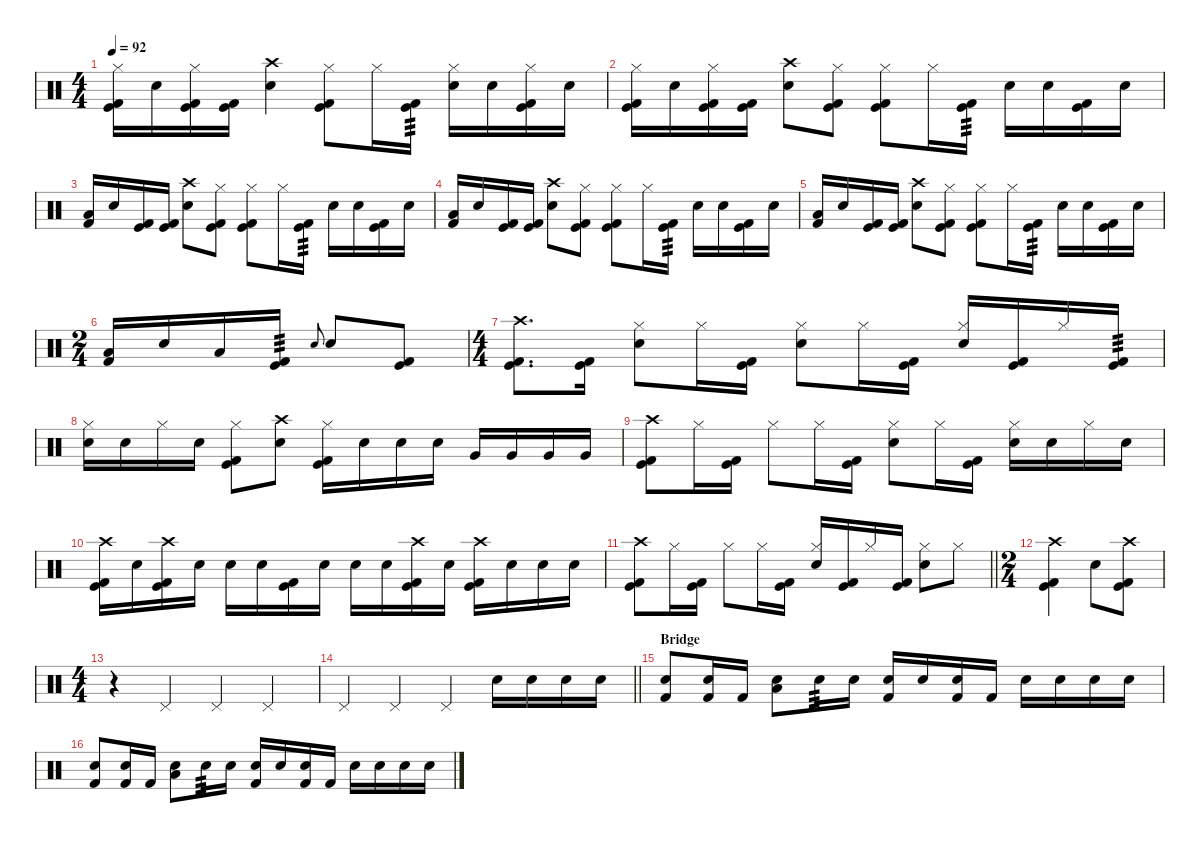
\defaultSystemsLayout 4
\hideDynamics
\bracketExtendMode nobrackets
\singleTrackTrackNamePolicy hidden
\multiTrackTrackNamePolicy hidden
\otherSystemsTrackNameOrientation horizontal
\track ("Lars" "drm.") {instrument percussion}
\staff {score}
\articulation defaults
\ts (4 4)
\tempo 92
\clef neutral
\ks c
("Hi-Hat (closed)" "Kick (hit)" "Kick (hit) 2").16{dy f beam Down} "Snare (hit) 2".16{beam Down} ("Hi-Hat (closed)" "Kick (hit)" "Kick (hit) 2").16{beam Down} ("Kick (hit)" "Kick (hit) 2").16{beam Down} ("Crash high (hit)" "Snare (hit) 2").4{beam Down} ("Hi-Hat (closed)" "Kick (hit)" "Kick (hit) 2").8{beam Down} "Hi-Hat (closed)".16{beam Down} ("Kick (hit)" "Kick (hit) 2").16{tp 3 beam Down} ("Hi-Hat (closed)" "Snare (hit) 2").16{beam Down} "Snare (hit) 2".16{beam Down} ("Hi-Hat (closed)" "Kick (hit)" "Kick (hit) 2").16{beam Down} "Snare (hit) 2".16{beam Down} |
("Hi-Hat (closed)" "Kick (hit)" "Kick (hit) 2").16{beam Down} "Snare (hit) 2".16{beam Down} ("Hi-Hat (closed)" "Kick (hit)" "Kick (hit) 2").16{beam Down} ("Kick (hit)" "Kick (hit) 2").16{beam Down} ("Crash high (hit)" "Snare (hit) 2").8{beam Down} ("Hi-Hat (closed)" "Kick (hit)" "Kick (hit) 2").8{beam Down} ("Hi-Hat (closed)" "Kick (hit)" "Kick (hit) 2").8{beam Down} "Hi-Hat (closed)".16{beam Down} ("Kick (hit)" "Kick (hit) 2").16{tp 3 beam Down} "Snare (hit) 2".16{beam Down} "Snare (hit) 2".16{beam Down} ("Kick (hit)" "Kick (hit) 2").16{beam Down} "Snare (hit) 2".16{beam Down} |
("Kick (hit) 2" "Low Floor Tom (hit)").16{beam Up} "Snare (hit) 2".16{beam Up} ("Kick (hit)" "Kick (hit) 2").16{beam Up} ("Kick (hit)" "Kick (hit) 2").16{beam Up} ("Crash high (hit)" "Snare (hit) 2").8{beam Down} ("Hi-Hat (closed)" "Kick (hit)" "Kick (hit) 2").8{beam Down} ("Hi-Hat (closed)" "Kick (hit)" "Kick (hit) 2").8{beam Down} "Hi-Hat (closed)".16{beam Down} ("Kick (hit)" "Kick (hit) 2").16{tp 3 beam Down} "Snare (hit) 2".16{beam Down} "Snare (hit) 2".16{beam Down} ("Kick (hit)" "Kick (hit) 2").16{beam Down} "Snare (hit) 2".16{beam Down} |
("Kick (hit) 2" "Low Floor Tom (hit)").16{beam Up} "Snare (hit) 2".16{beam Up} ("Kick (hit)" "Kick (hit) 2").16{beam Up} ("Kick (hit)" "Kick (hit) 2").16{beam Up} ("Crash high (hit)" "Snare (hit) 2").8{beam Down} ("Hi-Hat (closed)" "Kick (hit)" "Kick (hit) 2").8{beam Down} ("Hi-Hat (closed)" "Kick (hit)" "Kick (hit) 2").8{beam Down} "Hi-Hat (closed)".16{beam Down} ("Kick (hit)" "Kick (hit) 2").16{tp 3 beam Down} "Snare (hit) 2".16{beam Down} "Snare (hit) 2".16{beam Down} ("Kick (hit)" "Kick (hit) 2").16{beam Down} "Snare (hit) 2".16{beam Down} |
("Kick (hit) 2" "Low Floor Tom (hit)").16{beam Up} "Snare (hit) 2".16{beam Up} ("Kick (hit)" "Kick (hit) 2").16{beam Up} ("Kick (hit)" "Kick (hit) 2").16{beam Up} ("Crash high (hit)" "Snare (hit) 2").8{beam Down} ("Hi-Hat (closed)" "Kick (hit)" "Kick (hit) 2").8{beam Down} ("Hi-Hat (closed)" "Kick (hit)" "Kick (hit) 2").8{beam Down} "Hi-Hat (closed)".16{beam Down} ("Kick (hit)" "Kick (hit) 2").16{tp 3 beam Down} "Snare (hit) 2".16{beam Down} "Snare (hit) 2".16{beam Down} ("Kick (hit)" "Kick (hit) 2").16{beam Down} "Snare (hit) 2".16{beam Down} |
\ts (2 4)
\beaming (8 2 2)
("Kick (hit) 2" "Low Floor Tom (hit)").16{beam Up} "Snare (hit) 2".16{beam Up} "Low Floor Tom (hit)".16{beam Up} ("Kick (hit)" "Kick (hit) 2").16{tp 3 beam Up} "Electric Snare (hit)".8{gr onbeat dy mf beam Up} "Snare (hit) 2".8{dy f beam Up} ("Kick (hit)" "Kick (hit) 2").8{beam Up} |
\ts (4 4)
\beaming (8 2 2 2 2)
("Crash high (hit)" "Kick (hit)" "Kick (hit) 2").8{d beam Down} ("Kick (hit)" "Kick (hit) 2").16{beam Down} ("Hi-Hat (closed)" "Snare (hit) 2").8{beam Down} "Hi-Hat (closed)".16{beam Down} ("Kick (hit)" "Kick (hit) 2").16{beam Down} ("Hi-Hat (closed)" "Snare (hit) 2").8{beam Down} "Hi-Hat (closed)".16{beam Down} ("Kick (hit)" "Kick (hit) 2").16{beam Down} ("Hi-Hat (closed)" "Snare (hit) 2").16{beam Up} ("Kick (hit)" "Kick (hit) 2").16{beam Up} "Hi-Hat (closed)".16{beam Up} ("Kick (hit)" "Kick (hit) 2").16{tp 3 beam Up} |
("Hi-Hat (closed)" "Snare (hit) 2").16{beam Down} "Snare (hit) 2".16{beam Down} "Hi-Hat (closed)".16{beam Down} "Snare (hit) 2".16{beam Down} ("Hi-Hat (closed)" "Kick (hit)" "Kick (hit) 2").8{beam Down} ("Crash high (hit)" "Snare (hit) 2").8{beam Down} ("Hi-Hat (closed)" "Kick (hit)" "Kick (hit) 2").16{beam Down} "Snare (hit) 2".16{beam Down} "Snare (hit) 2".16{beam Down} "Snare (hit) 2".16{beam Down} "Very Low Tom (hit)".16{beam Up} "Very Low Tom (hit)".16{beam Up} "Very Low Tom (hit)".16{beam Up} "Very Low Tom (hit)".16{beam Up} |
("Crash high (hit)" "Kick (hit)" "Kick (hit) 2").8{beam Down} "Hi-Hat (closed)".16{beam Down} ("Kick (hit)" "Kick (hit) 2").16{beam Down} "Hi-Hat (closed)".8{beam Down} "Hi-Hat (closed)".16{beam Down} ("Kick (hit)" "Kick (hit) 2").16{beam Down} ("Hi-Hat (closed)" "Snare (hit) 2").8{beam Down} "Hi-Hat (closed)".16{beam Down} ("Kick (hit)" "Kick (hit) 2").16{beam Down} ("Hi-Hat (closed)" "Snare (hit) 2").16{beam Down} "Snare (hit) 2".16{beam Down} "Hi-Hat (closed)".16{beam Down} "Snare (hit) 2".16{beam Down} |
("Crash high (hit)" "Kick (hit)" "Kick (hit) 2").16{beam Down} "Snare (hit) 2".16{beam Down} ("Crash high (hit)" "Kick (hit)" "Kick (hit) 2").16{beam Down} "Snare (hit) 2".16{beam Down} "Snare (hit) 2".16{beam Down} "Snare (hit) 2".16{beam Down} ("Kick (hit)" "Kick (hit) 2").16{beam Down} "Snare (hit) 2".16{beam Down} "Snare (hit) 2".16{beam Down} "Snare (hit) 2".16{beam Down} ("Crash high (hit)" "Kick (hit)" "Kick (hit) 2").16{beam Down} "Snare (hit) 2".16{beam Down} ("Crash high (hit)" "Kick (hit)" "Kick (hit) 2").16{beam Down} "Snare (hit) 2".16{beam Down} "Snare (hit) 2".16{beam Down} "Snare (hit) 2".16{beam Down} |
\barLineRight lightlight
("Crash high (hit)" "Kick (hit)" "Kick (hit) 2").8{beam Down} "Hi-Hat (closed)".16{beam Down} ("Kick (hit)" "Kick (hit) 2").16{beam Down} "Hi-Hat (closed)".8{beam Down} "Hi-Hat (closed)".16{beam Down} ("Kick (hit)" "Kick (hit) 2").16{beam Down} ("Hi-Hat (closed)" "Snare (hit) 2").16{beam Up} ("Kick (hit)" "Kick (hit) 2").16{beam Up} "Hi-Hat (closed)".16{beam Up} ("Kick (hit)" "Kick (hit) 2").16{beam Up} ("Hi-Hat (closed)" "Snare (hit) 2").8{beam Down} "Hi-Hat (closed)".8{beam Down} |
\ts (2 4)
\beaming (8 2 2)
\section ("" "")
("Crash high (hit)" "Kick (hit)" "Kick (hit) 2").4{beam Down} "Snare (hit) 2".8{beam Down} ("Crash high (hit)" "Kick (hit)" "Kick (hit) 2").8{beam Down} |
\ts (4 4)
\beaming (8 2 2 2 2)
r.4{beam Down} "Pedal Hi-Hat (hit)".4{beam Up} "Pedal Hi-Hat (hit)".4{beam Up} "Pedal Hi-Hat (hit)".4{beam Up} |
\barLineRight lightlight "Pedal Hi-Hat (hit)".4{beam Up} "Pedal Hi-Hat (hit)".4{beam Up} "Pedal Hi-Hat (hit)".4{beam Up} "Snare (hit) 2".16{beam Down} "Snare (hit) 2".16{beam Down} "Snare (hit) 2".16{beam Down} "Snare (hit) 2".16{beam Down}
|
\section ("" "Bridge")
("Snare (hit) 2" "Kick (hit) 2").8{beam Up} ("Snare (hit) 2" "Kick (hit) 2").16{beam Up} "Kick (hit) 2".16{beam Up} ("Snare (hit) 2" "Low Tom (hit)").8{beam Down} "Snare (hit) 2".16{tp 3 beam Down} "Snare (hit) 2".16{beam Down} ("Snare (hit) 2" "Kick (hit) 2").16{beam Up} "Snare (hit) 2".16{beam Up} ("Snare (hit) 2" "Kick (hit) 2").16{beam Up} "Kick (hit) 2".16{beam Up} "Snare (hit) 2".16{beam Down} "Snare (hit) 2".16{beam Down} "Snare (hit) 2".16{beam Down} "Snare (hit) 2".16{beam Down} |
("Snare (hit) 2" "Kick (hit) 2").8{beam Up} ("Snare (hit) 2" "Kick (hit) 2").16{beam Up} "Kick (hit) 2".16{beam Up} ("Snare (hit) 2" "Low Tom (hit)").8{beam Down} "Snare (hit) 2".16{tp 3 beam Down} "Snare (hit) 2".16{beam Down} ("Snare (hit) 2" "Kick (hit) 2").16{beam Up} "Snare (hit) 2".16{beam Up} ("Snare (hit) 2" "Kick (hit) 2").16{beam Up} "Kick (hit) 2".16{beam Up} "Snare (hit) 2".16{beam Down} "Snare (hit) 2".16{beam Down} "Snare (hit) 2".16{beam Down} "Snare (hit) 2".16{beam Down}
